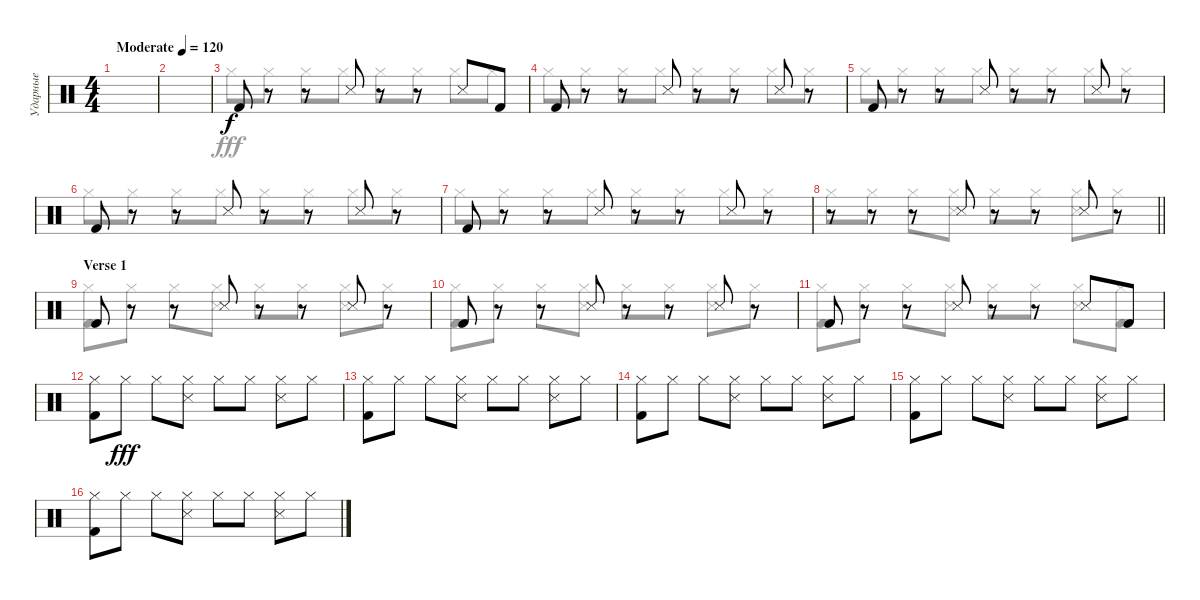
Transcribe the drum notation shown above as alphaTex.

\track ("Ударные" "Ударные") {instrument percussion}
\staff {score}
\articulation defaults
\voice
\ts (4 4)
\tempo (120 "Moderate")
\clef neutral
\ks c
|
|
"Kick (hit) 2".8 r.8 r.8 "Snare (side stick) 3".8 r.8 r.8 "Snare (side stick) 3".8 "Kick (hit) 2".8 |
"Kick (hit) 2".8 r.8 r.8 "Snare (side stick) 3".8 r.8 r.8 "Snare (side stick) 3".8 r.8 |
"Kick (hit) 2".8 r.8 r.8 "Snare (side stick) 3".8 r.8 r.8 "Snare (side stick) 3".8 r.8 |
"Kick (hit) 2".8 r.8 r.8 "Snare (side stick) 3".8 r.8 r.8 "Snare (side stick) 3".8 r.8 |
"Kick (hit) 2".8 r.8 r.8 "Snare (side stick) 3".8 r.8 r.8 "Snare (side stick) 3".8 r.8 |
\barLineRight lightlight
r.8 r.8 r.8 "Snare (side stick) 3".8{dy f} r.8 r.8 "Snare (side stick) 3".8 r.8 |
\section ("" "Verse 1")
"Kick (hit) 2".8 r.8 r.8 "Snare (side stick) 3".8 r.8 r.8 "Snare (side stick) 3".8 r.8 |
"Kick (hit) 2".8 r.8 r.8 "Snare (side stick) 3".8 r.8 r.8 "Snare (side stick) 3".8 r.8 |
"Kick (hit) 2".8 r.8 r.8 "Snare (side stick) 3".8 r.8 r.8 "Snare (side stick) 3".8 "Kick (hit) 2".8 |
("Hi-Hat (closed)" "Kick (hit) 2").8 "Hi-Hat (closed)".8{dy fff} "Hi-Hat (closed)".8 ("Hi-Hat (closed)" "Snare (side stick) 3").8 "Hi-Hat (closed)".8 "Hi-Hat (closed)".8 ("Hi-Hat (closed)" "Snare (side stick) 3").8 "Hi-Hat (closed)".8 |
("Hi-Hat (closed)" "Kick (hit) 2").8 "Hi-Hat (closed)".8 "Hi-Hat (closed)".8 ("Hi-Hat (closed)" "Snare (side stick) 3").8 "Hi-Hat (closed)".8 "Hi-Hat (closed)".8 ("Hi-Hat (closed)" "Snare (side stick) 3").8 "Hi-Hat (closed)".8 |
("Hi-Hat (closed)" "Kick (hit) 2").8 "Hi-Hat (closed)".8 "Hi-Hat (closed)".8 ("Hi-Hat (closed)" "Snare (side stick) 3").8 "Hi-Hat (closed)".8 "Hi-Hat (closed)".8 ("Hi-Hat (closed)" "Snare (side stick) 3").8 "Hi-Hat (closed)".8 |
("Hi-Hat (closed)" "Kick (hit) 2").8 "Hi-Hat (closed)".8 "Hi-Hat (closed)".8 ("Hi-Hat (closed)" "Snare (side stick) 3").8 "Hi-Hat (closed)".8 "Hi-Hat (closed)".8 ("Hi-Hat (closed)" "Snare (side stick) 3").8 "Hi-Hat (closed)".8 |
("Hi-Hat (closed)" "Kick (hit) 2").8 "Hi-Hat (closed)".8 "Hi-Hat (closed)".8 ("Hi-Hat (closed)" "Snare (side stick) 3").8 "Hi-Hat (closed)".8 "Hi-Hat (closed)".8 ("Hi-Hat (closed)" "Snare (side stick) 3").8 "Hi-Hat (closed)".8
\voice
\clef neutral
\ottava regular
\simile none
\ks c
|
|
"Hi-Hat (closed)".8 "Hi-Hat (closed)".8 "Hi-Hat (closed)".8 "Hi-Hat (closed)".8 "Hi-Hat (closed)".8 "Hi-Hat (closed)".8 "Hi-Hat (closed)".8 "Hi-Hat (closed)".8 |
"Hi-Hat (closed)".8 "Hi-Hat (closed)".8 "Hi-Hat (closed)".8 "Hi-Hat (closed)".8 "Hi-Hat (closed)".8 "Hi-Hat (closed)".8 "Hi-Hat (closed)".8 "Hi-Hat (closed)".8 |
"Hi-Hat (closed)".8 "Hi-Hat (closed)".8 "Hi-Hat (closed)".8 "Hi-Hat (closed)".8 "Hi-Hat (closed)".8 "Hi-Hat (closed)".8 "Hi-Hat (closed)".8 "Hi-Hat (closed)".8 |
"Hi-Hat (closed)".8 "Hi-Hat (closed)".8 "Hi-Hat (closed)".8 "Hi-Hat (closed)".8 "Hi-Hat (closed)".8 "Hi-Hat (closed)".8 "Hi-Hat (closed)".8 "Hi-Hat (closed)".8 |
"Hi-Hat (closed)".8 "Hi-Hat (closed)".8 "Hi-Hat (closed)".8 "Hi-Hat (closed)".8 "Hi-Hat (closed)".8 "Hi-Hat (closed)".8 "Hi-Hat (closed)".8 "Hi-Hat (closed)".8 |
\barLineRight lightlight "Hi-Hat (closed)".8 "Hi-Hat (closed)".8 "Hi-Hat (closed)".8
("Hi-Hat (closed)" "Snare (side stick) 3").8 "Hi-Hat (closed)".8 "Hi-Hat (closed)".8 ("Hi-Hat (closed)" "Snare (side stick) 3").8 "Hi-Hat (closed)".8 |
("Hi-Hat (closed)" "Kick (hit) 2").8 "Hi-Hat (closed)".8 "Hi-Hat (closed)".8 ("Hi-Hat (closed)" "Snare (side stick) 3").8 "Hi-Hat (closed)".8 "Hi-Hat (closed)".8 ("Hi-Hat (closed)" "Snare (side stick) 3").8 "Hi-Hat (closed)".8 |
("Hi-Hat (closed)" "Kick (hit) 2").8 "Hi-Hat (closed)".8 "Hi-Hat (closed)".8 ("Hi-Hat (closed)" "Snare (side stick) 3").8 "Hi-Hat (closed)".8 "Hi-Hat (closed)".8 ("Hi-Hat (closed)" "Snare (side stick) 3").8 "Hi-Hat (closed)".8 |
("Hi-Hat (closed)" "Kick (hit) 2").8 "Hi-Hat (closed)".8 "Hi-Hat (closed)".8 ("Hi-Hat (closed)" "Snare (side stick) 3").8 "Hi-Hat (closed)".8 "Hi-Hat (closed)".8 ("Hi-Hat (closed)" "Snare (side stick) 3").8 ("Hi-Hat (closed)" "Kick (hit) 2").8 |
|
|
|
|
